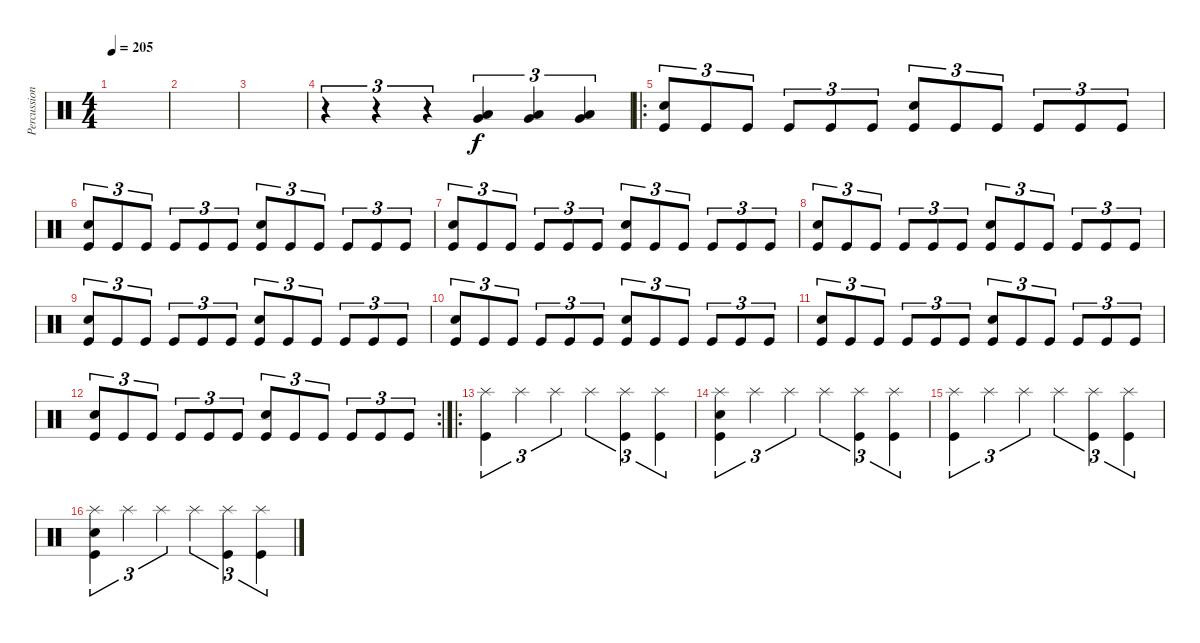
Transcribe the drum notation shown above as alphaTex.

\track ("Percussion" "Percussion") {instrument percussion}
\staff {score}
\articulation defaults
\ts (4 4)
\tempo 205
\clef neutral
\ks c
|
|
|
r.4{tu (3 2)} r.4{tu (3 2)} r.4{tu (3 2)} ("Low Floor Tom (hit)" "Very Low Tom (hit)").4{tu (3 2)} ("Low Floor Tom (hit)" "Very Low Tom (hit)").4{tu (3 2)} ("Low Floor Tom (hit)" "Very Low Tom (hit)").4{tu (3 2)} |
\ro
("Snare (hit) 2" "Kick (hit)").8{tu (3 2)} "Kick (hit)".8{tu (3 2)} "Kick (hit)".8{tu (3 2)} "Kick (hit)".8{tu (3 2)} "Kick (hit)".8{tu (3 2)} "Kick (hit)".8{tu (3 2)} ("Snare (hit) 2" "Kick (hit)").8{tu (3 2)} "Kick (hit)".8{tu (3 2)} "Kick (hit)".8{tu (3 2)} "Kick (hit)".8{tu (3 2)} "Kick (hit)".8{tu (3 2)} "Kick (hit)".8{tu (3 2)} |
("Snare (hit) 2" "Kick (hit)").8{tu (3 2)} "Kick (hit)".8{tu (3 2)} "Kick (hit)".8{tu (3 2)} "Kick (hit)".8{tu (3 2)} "Kick (hit)".8{tu (3 2)} "Kick (hit)".8{tu (3 2)} ("Snare (hit) 2" "Kick (hit)").8{tu (3 2)} "Kick (hit)".8{tu (3 2)} "Kick (hit)".8{tu (3 2)} "Kick (hit)".8{tu (3 2)} "Kick (hit)".8{tu (3 2)} "Kick (hit)".8{tu (3 2)} |
("Snare (hit) 2" "Kick (hit)").8{tu (3 2)} "Kick (hit)".8{tu (3 2)} "Kick (hit)".8{tu (3 2)} "Kick (hit)".8{tu (3 2)} "Kick (hit)".8{tu (3 2)} "Kick (hit)".8{tu (3 2)} ("Snare (hit) 2" "Kick (hit)").8{tu (3 2)} "Kick (hit)".8{tu (3 2)} "Kick (hit)".8{tu (3 2)} "Kick (hit)".8{tu (3 2)} "Kick (hit)".8{tu (3 2)} "Kick (hit)".8{tu (3 2)} |
("Snare (hit) 2" "Kick (hit)").8{tu (3 2)} "Kick (hit)".8{tu (3 2)} "Kick (hit)".8{tu (3 2)} "Kick (hit)".8{tu (3 2)} "Kick (hit)".8{tu (3 2)} "Kick (hit)".8{tu (3 2)} ("Snare (hit) 2" "Kick (hit)").8{tu (3 2)} "Kick (hit)".8{tu (3 2)} "Kick (hit)".8{tu (3 2)} "Kick (hit)".8{tu (3 2)} "Kick (hit)".8{tu (3 2)} "Kick (hit)".8{tu (3 2)} |
("Snare (hit) 2" "Kick (hit)").8{tu (3 2)} "Kick (hit)".8{tu (3 2)} "Kick (hit)".8{tu (3 2)} "Kick (hit)".8{tu (3 2)} "Kick (hit)".8{tu (3 2)} "Kick (hit)".8{tu (3 2)} ("Snare (hit) 2" "Kick (hit)").8{tu (3 2)} "Kick (hit)".8{tu (3 2)} "Kick (hit)".8{tu (3 2)} "Kick (hit)".8{tu (3 2)} "Kick (hit)".8{tu (3 2)} "Kick (hit)".8{tu (3 2)} |
("Snare (hit) 2" "Kick (hit)").8{tu (3 2)} "Kick (hit)".8{tu (3 2)} "Kick (hit)".8{tu (3 2)} "Kick (hit)".8{tu (3 2)} "Kick (hit)".8{tu (3 2)} "Kick (hit)".8{tu (3 2)} ("Snare (hit) 2" "Kick (hit)").8{tu (3 2)} "Kick (hit)".8{tu (3 2)} "Kick (hit)".8{tu (3 2)} "Kick (hit)".8{tu (3 2)} "Kick (hit)".8{tu (3 2)} "Kick (hit)".8{tu (3 2)} |
("Snare (hit) 2" "Kick (hit)").8{tu (3 2)} "Kick (hit)".8{tu (3 2)} "Kick (hit)".8{tu (3 2)} "Kick (hit)".8{tu (3 2)} "Kick (hit)".8{tu (3 2)} "Kick (hit)".8{tu (3 2)} ("Snare (hit) 2" "Kick (hit)").8{tu (3 2)} "Kick (hit)".8{tu (3 2)} "Kick (hit)".8{tu (3 2)} "Kick (hit)".8{tu (3 2)} "Kick (hit)".8{tu (3 2)} "Kick (hit)".8{tu (3 2)} |
\rc 2
("Snare (hit) 2" "Kick (hit)").8{tu (3 2)} "Kick (hit)".8{tu (3 2)} "Kick (hit)".8{tu (3 2)} "Kick (hit)".8{tu (3 2)} "Kick (hit)".8{tu (3 2)} "Kick (hit)".8{tu (3 2)} ("Snare (hit) 2" "Kick (hit)").8{tu (3 2)} "Kick (hit)".8{tu (3 2)} "Kick (hit)".8{tu (3 2)} "Kick (hit)".8{tu (3 2)} "Kick (hit)".8{tu (3 2)} "Kick (hit)".8{tu (3 2)} |
\ro
("Splash (hit)" "Kick (hit)").4{tu (3 2)} "Splash (hit)".4{tu (3 2)} "Splash (hit)".4{tu (3 2)} "Splash (hit)".4{tu (3 2)} ("Splash (hit)" "Kick (hit)").4{tu (3 2)} ("Splash (hit)" "Kick (hit)").4{tu (3 2)} |
("Splash (hit)" "Snare (hit) 2" "Kick (hit)").4{tu (3 2)} "Splash (hit)".4{tu (3 2)} "Splash (hit)".4{tu (3 2)} "Splash (hit)".4{tu (3 2)} ("Splash (hit)" "Kick (hit)").4{tu (3 2)} ("Splash (hit)" "Kick (hit)").4{tu (3 2)} |
("Splash (hit)" "Kick (hit)").4{tu (3 2)} "Splash (hit)".4{tu (3 2)} "Splash (hit)".4{tu (3 2)} "Splash (hit)".4{tu (3 2)} ("Splash (hit)" "Kick (hit)").4{tu (3 2)} ("Splash (hit)" "Kick (hit)").4{tu (3 2)} |
("Splash (hit)" "Snare (hit) 2" "Kick (hit)").4{tu (3 2)} "Splash (hit)".4{tu (3 2)} "Splash (hit)".4{tu (3 2)} "Splash (hit)".4{tu (3 2)} ("Splash (hit)" "Kick (hit)").4{tu (3 2)} ("Splash (hit)" "Kick (hit)").4{tu (3 2)}
